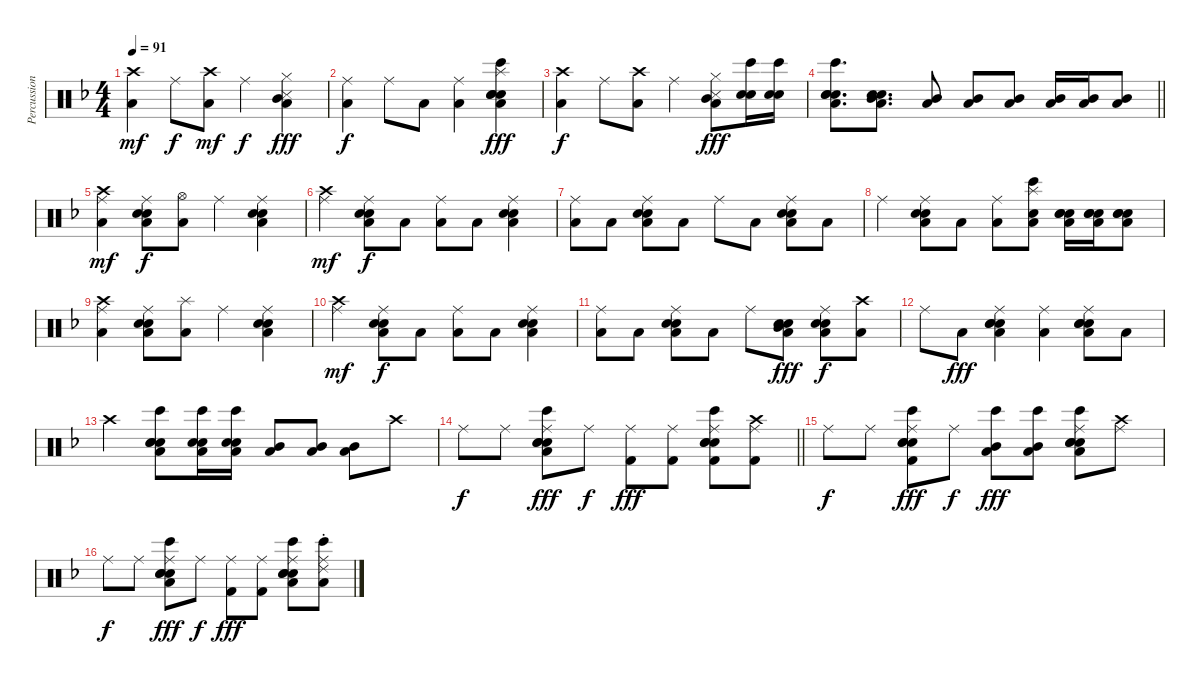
\track ("Percussion" "Percussion") {instrument percussion}
\staff {score}
\articulation defaults
\ts (4 4)
\tempo 91
\clef neutral
\ks f
("Low Floor Tom (hit)" "Crash high (hit)").4{dy mf} "Ride (middle)".8{dy f} ("Low Floor Tom (hit)" "Crash high (hit)").8{dy mf} "Ride (middle)".4{dy f} ("Mid Tom (hit)" "Snare (side stick) 3" "Low Floor Tom (hit)" "Hi-Hat (closed)").4{dy fff} |
("Ride (middle)" "Low Floor Tom (hit)").4{dy f} "Ride (middle)".8 "Low Floor Tom (hit)".8 ("Low Floor Tom (hit)" "Ride (middle)").4 ("Splash (hit)" "Low Floor Tom (hit)" "Snare (hit) 2" "Electric Snare (hit)" "Hand Clap (hit)" "Bongo High (hit)").4{dy fff} |
("Low Floor Tom (hit)" "Crash high (hit)").4{dy f} "Ride (middle)".8 ("Low Floor Tom (hit)" "Crash high (hit)").8 "Ride (middle)".4 ("Mid Tom (hit)" "Snare (side stick) 3" "Low Floor Tom (hit)" "Hi-Hat (closed)").8{dy fff} ("Snare (hit) 2" "Hand Clap (hit)" "Bongo High (hit)").16 ("Snare (hit) 2" "Hand Clap (hit)" "Bongo High (hit)").16 |
\barLineRight lightlight
("Low Floor Tom (hit)" "Electric Snare (hit)" "Snare (hit) 2" "Hand Clap (hit)" "Bongo High (hit)").8{d} ("Electric Snare (hit)" "Low Floor Tom (hit)" "Snare (hit) 2" "Mid Tom (hit)").8{d} ("Low Floor Tom (hit)" "Mid Tom (hit)").8 ("Low Floor Tom (hit)" "Mid Tom (hit)").8 ("Low Floor Tom (hit)" "Mid Tom (hit)").8 ("Low Floor Tom (hit)" "Mid Tom (hit)").16 ("Low Floor Tom (hit)" "Mid Tom (hit)").16 ("Low Floor Tom (hit)" "Mid Tom (hit)").8 |
("Low Floor Tom (hit)" "Crash high (hit)" "Ride (middle)").4{dy mf} ("Low Floor Tom (hit)" "Snare (hit) 2" "Electric Snare (hit)" "Ride (middle)").8{dy f} ("Low Floor Tom (hit)" "Hi-Hat (open)").8 "Ride (middle)".4 ("Electric Snare (hit)" "Snare (hit) 2" "Low Floor Tom (hit)" "Ride (middle)").4 |
("Crash high (hit)" "Ride (middle)").4{dy mf} ("Low Floor Tom (hit)" "Snare (hit) 2" "Electric Snare (hit)" "Ride (middle)").8{dy f} "Low Floor Tom (hit)".8 ("Low Floor Tom (hit)" "Ride (middle)").8 "Low Floor Tom (hit)".8 ("Electric Snare (hit)" "Low Floor Tom (hit)" "Ride (middle)" "Snare (hit) 2").4 |
("Low Floor Tom (hit)" "Ride (middle)").8 "Low Floor Tom (hit)".8 ("Electric Snare (hit)" "Low Floor Tom (hit)" "Snare (hit) 2" "Ride (middle)").8 "Low Floor Tom (hit)".8 "Ride (middle)".8 "Low Floor Tom (hit)".8 ("Electric Snare (hit)" "Low Floor Tom (hit)" "Snare (hit) 2" "Ride (middle)").8 "Low Floor Tom (hit)".8 |
"Ride (middle)".4 ("Electric Snare (hit)" "Low Floor Tom (hit)" "Snare (hit) 2" "Ride (middle)").8 "Low Floor Tom (hit)".8 ("Low Floor Tom (hit)" "Ride (middle)").8 ("Bongo High (hit)" "Low Floor Tom (hit)" "Snare (hit) 2" "Splash (hit)").8 ("Low Floor Tom (hit)" "Snare (hit) 2" "Electric Snare (hit)" "Hand Clap (hit)").16 ("Low Floor Tom (hit)" "Snare (hit) 2" "Electric Snare (hit)" "Hand Clap (hit)").16 ("Low Floor Tom (hit)" "Snare (hit) 2" "Electric Snare (hit)" "Hand Clap (hit)").8 |
("Low Floor Tom (hit)" "Crash high (hit)" "Ride (middle)").4 ("Low Floor Tom (hit)" "Snare (hit) 2" "Electric Snare (hit)" "Ride (middle)").8 ("Low Floor Tom (hit)" "Splash (hit)").8 "Ride (middle)".4 ("Electric Snare (hit)" "Snare (hit) 2" "Low Floor Tom (hit)" "Ride (middle)").4 |
("Crash high (hit)" "Ride (middle)").4{dy mf} ("Low Floor Tom (hit)" "Snare (hit) 2" "Electric Snare (hit)" "Ride (middle)").8{dy f} "Low Floor Tom (hit)".8 ("Low Floor Tom (hit)" "Ride (middle)").8 "Low Floor Tom (hit)".8 ("Electric Snare (hit)" "Low Floor Tom (hit)" "Ride (middle)" "Snare (hit) 2").4 |
("Low Floor Tom (hit)" "Ride (middle)").8 "Low Floor Tom (hit)".8 ("Electric Snare (hit)" "Low Floor Tom (hit)" "Snare (hit) 2" "Ride (middle)").8 "Low Floor Tom (hit)".8 "Ride (middle)".8 ("Electric Snare (hit)" "Low Floor Tom (hit)" "Mid Tom (hit)" "Snare (hit) 2").8{dy fff} ("Electric Snare (hit)" "Low Floor Tom (hit)" "Snare (hit) 2" "Ride (middle)").8{dy f} ("Low Floor Tom (hit)" "Crash high (hit)").8 |
"Ride (middle)".8 "Low Floor Tom (hit)".8{dy fff} ("Electric Snare (hit)" "Low Floor Tom (hit)" "Ride (middle)" "Snare (hit) 2" "Hand Clap (hit)").4 ("Low Floor Tom (hit)" "Ride (middle)").4 ("Electric Snare (hit)" "Low Floor Tom (hit)" "Ride (middle)" "Snare (hit) 2" "Hand Clap (hit)").8 "Low Floor Tom (hit)".8 |
"Crash high (hit)".4 ("Hand Clap (hit)" "Low Floor Tom (hit)" "Snare (hit) 2" "Electric Snare (hit)" "Bongo High (hit)").8 ("Low Floor Tom (hit)" "Snare (hit) 2" "Hand Clap (hit)" "Bongo High (hit)").16 ("Low Floor Tom (hit)" "Snare (hit) 2" "Hand Clap (hit)" "Bongo High (hit)").16 ("Low Floor Tom (hit)" "Mid Tom (hit)").8 ("Low Floor Tom (hit)" "Mid Tom (hit)").8 ("Low Floor Tom (hit)" "Mid Tom (hit)").8 "Crash high (hit)".8 |
\barLineRight lightlight "Ride (middle)".8{dy f} "Ride (middle)".8
("Low Floor Tom (hit)" "Electric Snare (hit)" "Ride (middle)" "Snare (hit) 2" "Hand Clap (hit)" "Bongo High (hit)").8{dy fff} "Ride (middle)".8{dy f} ("Ride (middle)" "Kick (hit) 2").8{dy fff} ("Ride (middle)" "Kick (hit) 2").8 ("Bongo High (hit)" "Hand Clap (hit)" "Ride (middle)" "Kick (hit) 2" "Snare (hit) 2" "Electric Snare (hit)").8 ("Kick (hit) 2" "Ride (middle)" "Crash high (hit)").8 |
"Ride (middle)".8{dy f} "Ride (middle)".8 ("Kick (hit) 2" "Electric Snare (hit)" "Ride (middle)" "Snare (hit) 2" "Hand Clap (hit)" "Bongo High (hit)").8{dy fff} "Ride (middle)".8{dy f} ("Low Floor Tom (hit)" "Mid Tom (hit)" "Bongo High (hit)").8{dy fff} ("Low Floor Tom (hit)" "Mid Tom (hit)" "Bongo High (hit)").8 ("Bongo High (hit)" "Hand Clap (hit)" "Ride (middle)" "Low Floor Tom (hit)" "Snare (hit) 2" "Electric Snare (hit)").8 ("Ride (middle)" "Crash high (hit)").8 |
"Ride (middle)".8{dy f} "Ride (middle)".8 ("Low Floor Tom (hit)" "Electric Snare (hit)" "Ride (middle)" "Snare (hit) 2" "Hand Clap (hit)" "Bongo High (hit)").8{dy fff} "Ride (middle)".8{dy f} ("Ride (middle)" "Kick (hit) 2").8{dy fff} ("Ride (middle)" "Kick (hit) 2").8 ("Bongo High (hit)" "Hand Clap (hit)" "Ride (middle)" "Low Floor Tom (hit)" "Snare (hit) 2" "Electric Snare (hit)").8 ("Low Floor Tom (hit)" "Ride (middle)" "Bongo High (hit)" "Ride (choke) 2").8
